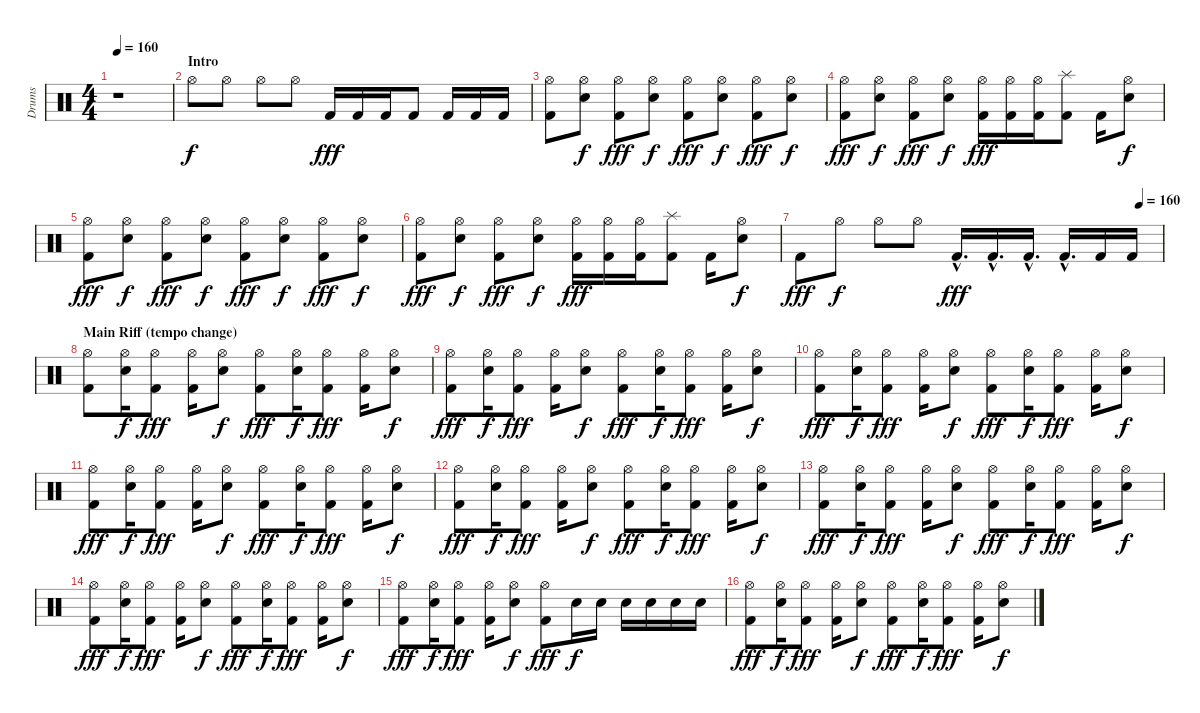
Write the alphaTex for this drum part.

\track ("Drums" "Drums") {instrument percussion}
\staff {score}
\articulation defaults
\ts (4 4)
\tempo 160
\tempo 84
\tempo 160
\clef neutral
\ks c
r.1{dy f} |
\section ("" "Intro")
"Hi-Hat (open)".8 "Hi-Hat (open)".8 "Hi-Hat (open)".8 "Hi-Hat (open)".8 "Kick (hit) 2".16{dy fff} "Kick (hit) 2".16 "Kick (hit) 2".16 "Kick (hit) 2".8 "Kick (hit) 2".16 "Kick (hit) 2".16 "Kick (hit) 2".16 |
("Hi-Hat (open)" "Kick (hit) 2").8 ("Hi-Hat (open)" "Electric Snare (hit)").8{dy f} ("Hi-Hat (open)" "Kick (hit) 2").8{dy fff} ("Hi-Hat (open)" "Electric Snare (hit)").8{dy f} ("Hi-Hat (open)" "Kick (hit) 2").8{dy fff} ("Hi-Hat (open)" "Electric Snare (hit)").8{dy f} ("Hi-Hat (open)" "Kick (hit) 2").8{dy fff} ("Hi-Hat (open)" "Electric Snare (hit)").8{dy f} |
("Hi-Hat (open)" "Kick (hit) 2").8{dy fff} ("Hi-Hat (open)" "Electric Snare (hit)").8{dy f} ("Hi-Hat (open)" "Kick (hit) 2").8{dy fff} ("Hi-Hat (open)" "Electric Snare (hit)").8{dy f} ("Hi-Hat (open)" "Kick (hit) 2").16{dy fff} ("Hi-Hat (open)" "Kick (hit) 2").16 ("Hi-Hat (open)" "Kick (hit) 2").16 ("Splash (hit)" "Kick (hit) 2").8 "Kick (hit) 2".16 ("Hi-Hat (open)" "Electric Snare (hit)").8{dy f} |
("Hi-Hat (open)" "Kick (hit) 2").8{dy fff} ("Hi-Hat (open)" "Electric Snare (hit)").8{dy f} ("Hi-Hat (open)" "Kick (hit) 2").8{dy fff} ("Hi-Hat (open)" "Electric Snare (hit)").8{dy f} ("Hi-Hat (open)" "Kick (hit) 2").8{dy fff} ("Hi-Hat (open)" "Electric Snare (hit)").8{dy f} ("Hi-Hat (open)" "Kick (hit) 2").8{dy fff} ("Hi-Hat (open)" "Electric Snare (hit)").8{dy f} |
("Hi-Hat (open)" "Kick (hit) 2").8{dy fff} ("Hi-Hat (open)" "Electric Snare (hit)").8{dy f} ("Hi-Hat (open)" "Kick (hit) 2").8{dy fff} ("Hi-Hat (open)" "Electric Snare (hit)").8{dy f} ("Hi-Hat (open)" "Kick (hit) 2").16{dy fff} ("Hi-Hat (open)" "Kick (hit) 2").16 ("Hi-Hat (open)" "Kick (hit) 2").16 ("Splash (hit)" "Kick (hit) 2").8 "Kick (hit) 2".16 ("Hi-Hat (open)" "Electric Snare (hit)").8{dy f} |
\tempo (160 0.9375)
"Kick (hit) 2".8{dy fff} "Hi-Hat (open)".8{dy f} "Hi-Hat (open)".8 "Hi-Hat (open)".8 "Kick (hit) 2"{hac}.16{d dy fff} "Kick (hit) 2"{hac}.16{d} "Kick (hit) 2"{hac}.16{d} "Kick (hit) 2"{hac}.16{d} "Kick (hit) 2".16 "Kick (hit) 2".16 |
\section ("" "Main Riff (tempo change)")
("Hi-Hat (open)" "Kick (hit) 2").8 ("Hi-Hat (open)" "Electric Snare (hit)").16{dy f} ("Hi-Hat (open)" "Kick (hit) 2").8{dy fff} ("Hi-Hat (open)" "Kick (hit) 2").16 ("Hi-Hat (open)" "Electric Snare (hit)").8{dy f} ("Hi-Hat (open)" "Kick (hit) 2").8{dy fff} ("Hi-Hat (open)" "Electric Snare (hit)").16{dy f} ("Hi-Hat (open)" "Kick (hit) 2").8{dy fff} ("Hi-Hat (open)" "Kick (hit) 2").16 ("Hi-Hat (open)" "Electric Snare (hit)").8{dy f} |
("Hi-Hat (open)" "Kick (hit) 2").8{dy fff} ("Hi-Hat (open)" "Electric Snare (hit)").16{dy f} ("Hi-Hat (open)" "Kick (hit) 2").8{dy fff} ("Hi-Hat (open)" "Kick (hit) 2").16 ("Hi-Hat (open)" "Electric Snare (hit)").8{dy f} ("Hi-Hat (open)" "Kick (hit) 2").8{dy fff} ("Hi-Hat (open)" "Electric Snare (hit)").16{dy f} ("Hi-Hat (open)" "Kick (hit) 2").8{dy fff} ("Hi-Hat (open)" "Kick (hit) 2").16 ("Hi-Hat (open)" "Electric Snare (hit)").8{dy f} |
("Hi-Hat (open)" "Kick (hit) 2").8{dy fff} ("Hi-Hat (open)" "Electric Snare (hit)").16{dy f} ("Hi-Hat (open)" "Kick (hit) 2").8{dy fff} ("Hi-Hat (open)" "Kick (hit) 2").16 ("Hi-Hat (open)" "Electric Snare (hit)").8{dy f} ("Hi-Hat (open)" "Kick (hit) 2").8{dy fff} ("Hi-Hat (open)" "Electric Snare (hit)").16{dy f} ("Hi-Hat (open)" "Kick (hit) 2").8{dy fff} ("Hi-Hat (open)" "Kick (hit) 2").16 ("Hi-Hat (open)" "Electric Snare (hit)").8{dy f} |
("Hi-Hat (open)" "Kick (hit) 2").8{dy fff} ("Hi-Hat (open)" "Electric Snare (hit)").16{dy f} ("Hi-Hat (open)" "Kick (hit) 2").8{dy fff} ("Hi-Hat (open)" "Kick (hit) 2").16 ("Hi-Hat (open)" "Electric Snare (hit)").8{dy f} ("Hi-Hat (open)" "Kick (hit) 2").8{dy fff} ("Hi-Hat (open)" "Electric Snare (hit)").16{dy f} ("Hi-Hat (open)" "Kick (hit) 2").8{dy fff} ("Hi-Hat (open)" "Kick (hit) 2").16 ("Hi-Hat (open)" "Electric Snare (hit)").8{dy f} |
("Hi-Hat (open)" "Kick (hit) 2").8{dy fff} ("Hi-Hat (open)" "Electric Snare (hit)").16{dy f} ("Hi-Hat (open)" "Kick (hit) 2").8{dy fff} ("Hi-Hat (open)" "Kick (hit) 2").16 ("Hi-Hat (open)" "Electric Snare (hit)").8{dy f} ("Hi-Hat (open)" "Kick (hit) 2").8{dy fff} ("Hi-Hat (open)" "Electric Snare (hit)").16{dy f} ("Hi-Hat (open)" "Kick (hit) 2").8{dy fff} ("Hi-Hat (open)" "Kick (hit) 2").16 ("Hi-Hat (open)" "Electric Snare (hit)").8{dy f} |
("Hi-Hat (open)" "Kick (hit) 2").8{dy fff} ("Hi-Hat (open)" "Electric Snare (hit)").16{dy f} ("Hi-Hat (open)" "Kick (hit) 2").8{dy fff} ("Hi-Hat (open)" "Kick (hit) 2").16 ("Hi-Hat (open)" "Electric Snare (hit)").8{dy f} ("Hi-Hat (open)" "Kick (hit) 2").8{dy fff} ("Hi-Hat (open)" "Electric Snare (hit)").16{dy f} ("Hi-Hat (open)" "Kick (hit) 2").8{dy fff} ("Hi-Hat (open)" "Kick (hit) 2").16 ("Hi-Hat (open)" "Electric Snare (hit)").8{dy f} |
("Hi-Hat (open)" "Kick (hit) 2").8{dy fff} ("Hi-Hat (open)" "Electric Snare (hit)").16{dy f} ("Hi-Hat (open)" "Kick (hit) 2").8{dy fff} ("Hi-Hat (open)" "Kick (hit) 2").16 ("Hi-Hat (open)" "Electric Snare (hit)").8{dy f} ("Hi-Hat (open)" "Kick (hit) 2").8{dy fff} ("Hi-Hat (open)" "Electric Snare (hit)").16{dy f} ("Hi-Hat (open)" "Kick (hit) 2").8{dy fff} ("Hi-Hat (open)" "Kick (hit) 2").16 ("Hi-Hat (open)" "Electric Snare (hit)").8{dy f} |
("Hi-Hat (open)" "Kick (hit) 2").8{dy fff} ("Hi-Hat (open)" "Electric Snare (hit)").16{dy f} ("Hi-Hat (open)" "Kick (hit) 2").8{dy fff} ("Hi-Hat (open)" "Kick (hit) 2").16 ("Hi-Hat (open)" "Electric Snare (hit)").8{dy f} ("Hi-Hat (open)" "Kick (hit) 2").8{dy fff} "Electric Snare (hit)".16{dy f} "Electric Snare (hit)".16 "Electric Snare (hit)".16 "Electric Snare (hit)".16 "Electric Snare (hit)".16 "Electric Snare (hit)".16 |
("Hi-Hat (open)" "Kick (hit) 2").8{dy fff} ("Hi-Hat (open)" "Electric Snare (hit)").16{dy f} ("Hi-Hat (open)" "Kick (hit) 2").8{dy fff} ("Hi-Hat (open)" "Kick (hit) 2").16 ("Hi-Hat (open)" "Electric Snare (hit)").8{dy f} ("Hi-Hat (open)" "Kick (hit) 2").8{dy fff} ("Hi-Hat (open)" "Electric Snare (hit)").16{dy f} ("Hi-Hat (open)" "Kick (hit) 2").8{dy fff} ("Hi-Hat (open)" "Kick (hit) 2").16 ("Hi-Hat (open)" "Electric Snare (hit)").8{dy f}
